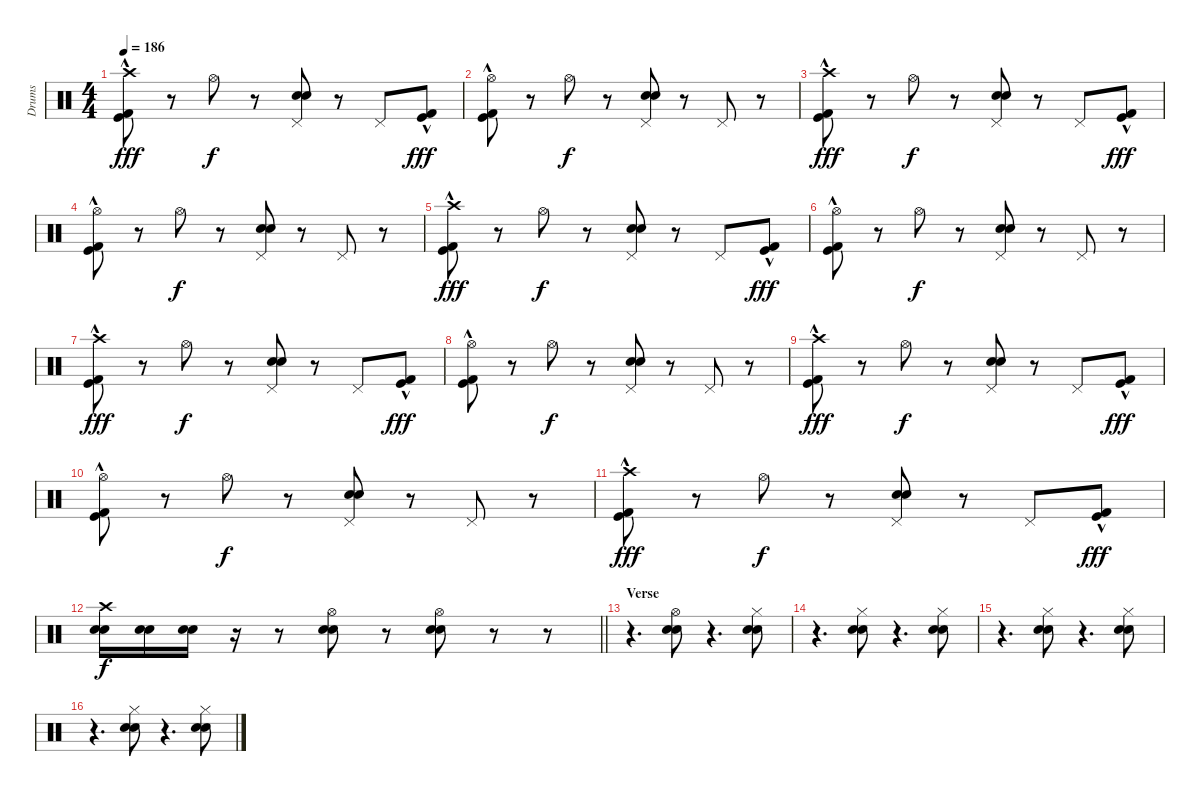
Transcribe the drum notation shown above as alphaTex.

\track ("Drums" "Drums") {instrument percussion}
\staff {score}
\articulation defaults
\ts (4 4)
\tempo 186
\clef neutral
\ks c
("Crash high (hit)" "Kick (hit)"{hac} "Kick (hit) 2"{hac}).8{dy fff} r.8 "Hi-Hat (open)".8{dy f} r.8 ("Pedal Hi-Hat (hit)" "Snare (hit) 2" "Snare (hit) 2").8 r.8 "Pedal Hi-Hat (hit)".8 ("Kick (hit)"{hac} "Kick (hit) 2"{hac}).8{dy fff} |
("Hi-Hat (open)" "Kick (hit)"{hac} "Kick (hit) 2"{hac}).8 r.8 "Hi-Hat (open)".8{dy f} r.8 ("Pedal Hi-Hat (hit)" "Snare (hit) 2" "Snare (hit) 2").8 r.8 "Pedal Hi-Hat (hit)".8 r.8 |
("Crash high (hit)" "Kick (hit)"{hac} "Kick (hit) 2"{hac}).8{dy fff} r.8 "Hi-Hat (open)".8{dy f} r.8 ("Pedal Hi-Hat (hit)" "Snare (hit) 2" "Snare (hit) 2").8 r.8 "Pedal Hi-Hat (hit)".8 ("Kick (hit)"{hac} "Kick (hit) 2"{hac}).8{dy fff} |
("Hi-Hat (open)" "Kick (hit)"{hac} "Kick (hit) 2"{hac}).8 r.8 "Hi-Hat (open)".8{dy f} r.8 ("Pedal Hi-Hat (hit)" "Snare (hit) 2" "Snare (hit) 2").8 r.8 "Pedal Hi-Hat (hit)".8 r.8 |
("Crash high (hit)" "Kick (hit)"{hac} "Kick (hit) 2"{hac}).8{dy fff} r.8 "Hi-Hat (open)".8{dy f} r.8 ("Pedal Hi-Hat (hit)" "Snare (hit) 2" "Snare (hit) 2").8 r.8 "Pedal Hi-Hat (hit)".8 ("Kick (hit)"{hac} "Kick (hit) 2"{hac}).8{dy fff} |
("Hi-Hat (open)" "Kick (hit)"{hac} "Kick (hit) 2"{hac}).8 r.8 "Hi-Hat (open)".8{dy f} r.8 ("Pedal Hi-Hat (hit)" "Snare (hit) 2" "Snare (hit) 2").8 r.8 "Pedal Hi-Hat (hit)".8 r.8 |
("Crash high (hit)" "Kick (hit)"{hac} "Kick (hit) 2"{hac}).8{dy fff} r.8 "Hi-Hat (open)".8{dy f} r.8 ("Pedal Hi-Hat (hit)" "Snare (hit) 2" "Snare (hit) 2").8 r.8 "Pedal Hi-Hat (hit)".8 ("Kick (hit)"{hac} "Kick (hit) 2"{hac}).8{dy fff} |
("Hi-Hat (open)" "Kick (hit)"{hac} "Kick (hit) 2"{hac}).8 r.8 "Hi-Hat (open)".8{dy f} r.8 ("Pedal Hi-Hat (hit)" "Snare (hit) 2" "Snare (hit) 2").8 r.8 "Pedal Hi-Hat (hit)".8 r.8 |
("Crash high (hit)" "Kick (hit)"{hac} "Kick (hit) 2"{hac}).8{dy fff} r.8 "Hi-Hat (open)".8{dy f} r.8 ("Pedal Hi-Hat (hit)" "Snare (hit) 2" "Snare (hit) 2").8 r.8 "Pedal Hi-Hat (hit)".8 ("Kick (hit)"{hac} "Kick (hit) 2"{hac}).8{dy fff} |
("Hi-Hat (open)" "Kick (hit)"{hac} "Kick (hit) 2"{hac}).8 r.8 "Hi-Hat (open)".8{dy f} r.8 ("Pedal Hi-Hat (hit)" "Snare (hit) 2" "Snare (hit) 2").8 r.8 "Pedal Hi-Hat (hit)".8 r.8 |
("Crash high (hit)" "Kick (hit)"{hac} "Kick (hit) 2"{hac}).8{dy fff} r.8 "Hi-Hat (open)".8{dy f} r.8 ("Pedal Hi-Hat (hit)" "Snare (hit) 2" "Snare (hit) 2").8 r.8 "Pedal Hi-Hat (hit)".8 ("Kick (hit)"{hac} "Kick (hit) 2"{hac}).8{dy fff} |
\barLineRight lightlight
("Crash high (hit)" "Snare (hit) 2" "Snare (hit) 2").16{dy f} ("Snare (hit) 2" "Snare (hit) 2").16 ("Snare (hit) 2" "Snare (hit) 2").16 r.16 r.8 ("Hi-Hat (open)" "Snare (hit) 2" "Snare (hit) 2").8 r.8 ("Hi-Hat (open)" "Snare (hit) 2" "Snare (hit) 2").8 r.8 r.8 |
\section ("" "Verse")
r.4{d} ("Hi-Hat (open)" "Snare (hit) 2" "Snare (hit) 2").8 r.4{d} ("Hi-Hat (closed)" "Snare (hit) 2" "Snare (hit) 2").8 |
r.4{d} ("Hi-Hat (closed)" "Snare (hit) 2" "Snare (hit) 2").8 r.4{d} ("Hi-Hat (closed)" "Snare (hit) 2" "Snare (hit) 2").8 |
r.4{d} ("Hi-Hat (closed)" "Snare (hit) 2" "Snare (hit) 2").8 r.4{d} ("Hi-Hat (closed)" "Snare (hit) 2" "Snare (hit) 2").8 |
r.4{d} ("Hi-Hat (closed)" "Snare (hit) 2" "Snare (hit) 2").8 r.4{d} ("Hi-Hat (closed)" "Snare (hit) 2" "Snare (hit) 2").8
